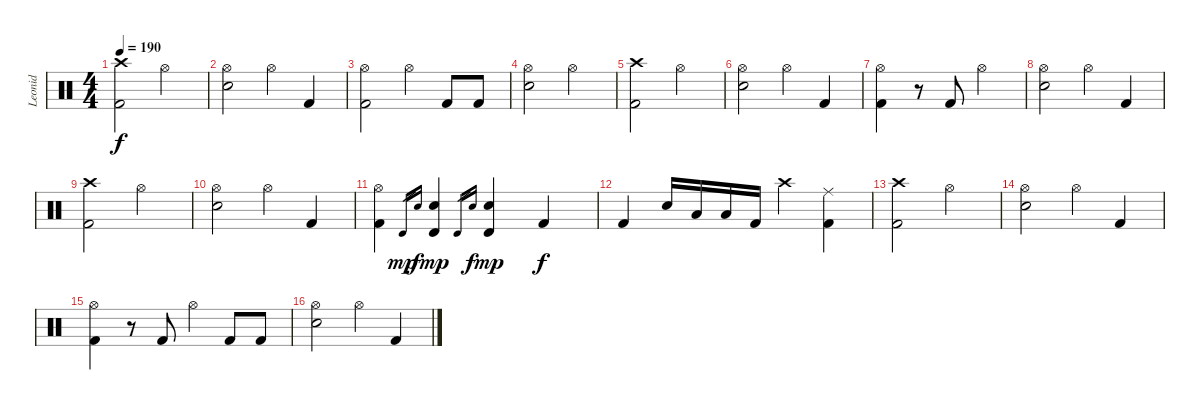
\track ("Leonid" "Leonid") {instrument percussion}
\staff {score}
\articulation defaults
\ts (4 4)
\tempo 190
\clef neutral
\ks c
("Crash high (hit)" "Kick (hit) 2").2{dy f} "Hi-Hat (open)".2 |
("Hi-Hat (open)" "Electric Snare (hit)").2 "Hi-Hat (open)".4 "Kick (hit) 2".4 |
("Hi-Hat (open)" "Kick (hit) 2").2 "Hi-Hat (open)".4 "Kick (hit) 2".8 "Kick (hit) 2".8 |
("Hi-Hat (open)" "Electric Snare (hit)").2 "Hi-Hat (open)".2 |
("Crash high (hit)" "Kick (hit) 2").2 "Hi-Hat (open)".2 |
("Hi-Hat (open)" "Electric Snare (hit)").2 "Hi-Hat (open)".4 "Kick (hit) 2".4 |
("Hi-Hat (open)" "Kick (hit) 2").4 r.8 "Kick (hit) 2".8 "Hi-Hat (open)".2 |
("Hi-Hat (open)" "Electric Snare (hit)").2 "Hi-Hat (open)".4 "Kick (hit) 2".4 |
("Crash high (hit)" "Kick (hit) 2").2 "Hi-Hat (open)".2 |
("Hi-Hat (open)" "Electric Snare (hit)").2 "Hi-Hat (open)".4 "Kick (hit) 2".4 |
("Hi-Hat (open)" "Kick (hit) 2").4 "Timbale high (hit)".16{gr dy mp} "Electric Snare (hit)".16{gr dy f} ("Timbale high (hit)" "Electric Snare (hit)").4{dy mp} "Timbale high (hit)".16{gr} "Electric Snare (hit)".16{gr dy f} ("Timbale high (hit)" "Electric Snare (hit)").4{dy mp} "Kick (hit) 2".4{dy f} |
"Kick (hit) 2".4 "Electric Snare (hit)".16 "Low Tom (hit)".16 "Low Tom (hit)".16 "Kick (hit) 2".16 "Crash high (hit)".4 ("Ride (middle)" "Kick (hit) 2").4 |
("Crash high (hit)" "Kick (hit) 2").2 "Hi-Hat (open)".2 |
("Hi-Hat (open)" "Electric Snare (hit)").2 "Hi-Hat (open)".4 "Kick (hit) 2".4 |
("Hi-Hat (open)" "Kick (hit) 2").4 r.8 "Kick (hit) 2".8 "Hi-Hat (open)".4 "Kick (hit) 2".8 "Kick (hit) 2".8 |
("Hi-Hat (open)" "Electric Snare (hit)").2 "Hi-Hat (open)".4 "Kick (hit) 2".4
